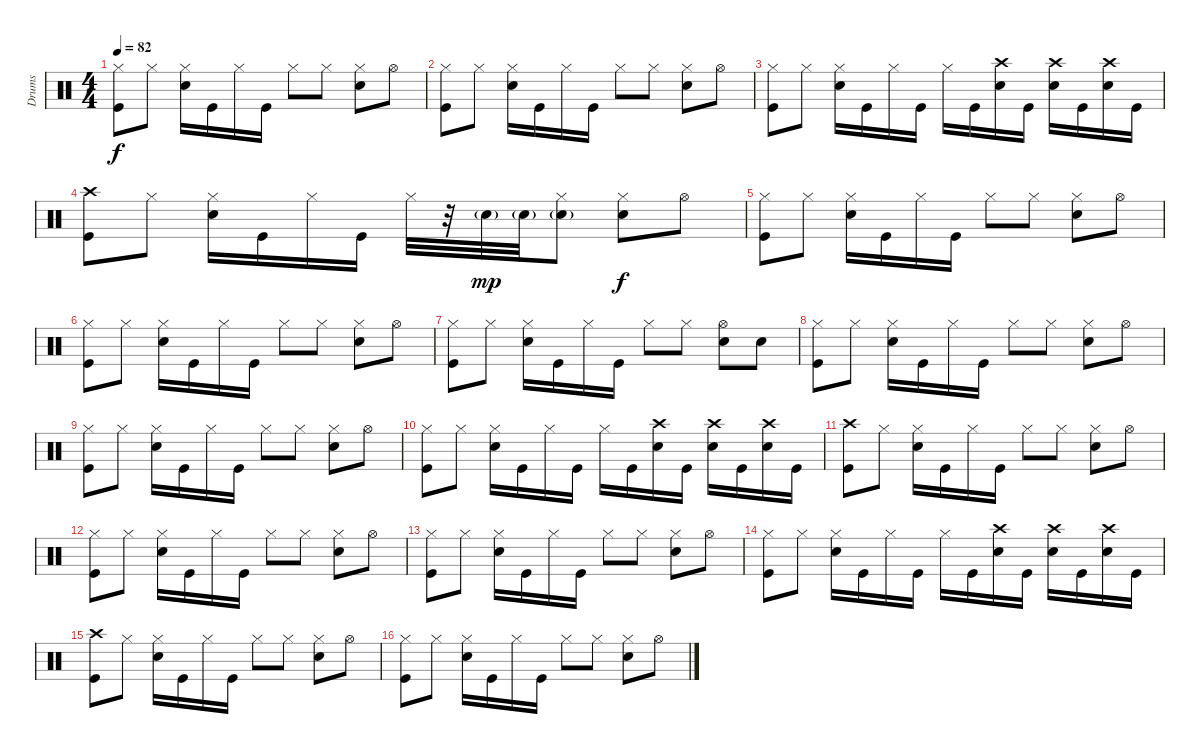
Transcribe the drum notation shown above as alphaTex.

\track ("Drums" "Drums") {instrument percussion}
\staff {score}
\articulation defaults
\ts (4 4)
\tempo 82
\clef neutral
\ks c
("Hi-Hat (closed)" "Kick (hit)").8{dy f} "Hi-Hat (closed)".8 ("Hi-Hat (closed)" "Snare (hit) 2").16 "Kick (hit)".16 "Hi-Hat (closed)".16 "Kick (hit)".16 "Hi-Hat (closed)".8 "Hi-Hat (closed)".8 ("Hi-Hat (closed)" "Snare (hit) 2").8 "Hi-Hat (open)".8 |
("Hi-Hat (closed)" "Kick (hit)").8 "Hi-Hat (closed)".8 ("Hi-Hat (closed)" "Snare (hit) 2").16 "Kick (hit)".16 "Hi-Hat (closed)".16 "Kick (hit)".16 "Hi-Hat (closed)".8 "Hi-Hat (closed)".8 ("Hi-Hat (closed)" "Snare (hit) 2").8 "Hi-Hat (open)".8 |
("Hi-Hat (closed)" "Kick (hit)").8 "Hi-Hat (closed)".8 ("Hi-Hat (closed)" "Snare (hit) 2").16 "Kick (hit)".16 "Hi-Hat (closed)".16 "Kick (hit)".16 "Hi-Hat (closed)".16 "Kick (hit)".16 ("Crash high (hit)" "Electric Snare (hit)").16 "Kick (hit)".16 ("Crash high (hit)" "Electric Snare (hit)").16 "Kick (hit)".16 ("Crash high (hit)" "Electric Snare (hit)").16 "Kick (hit)".16 |
("Crash high (hit)" "Kick (hit)").8 "Hi-Hat (closed)".8 ("Hi-Hat (closed)" "Snare (hit) 2").16 "Kick (hit)".16 "Hi-Hat (closed)".16 "Kick (hit)".16 "Hi-Hat (closed)".32 r.32 "Snare (hit) 2"{g}.32{dy mp} "Snare (hit) 2"{g}.32 ("Hi-Hat (closed)" "Snare (hit) 2"{g}).8 ("Hi-Hat (closed)" "Snare (hit) 2").8{dy f} "Hi-Hat (open)".8 |
("Hi-Hat (closed)" "Kick (hit)").8 "Hi-Hat (closed)".8 ("Hi-Hat (closed)" "Snare (hit) 2").16 "Kick (hit)".16 "Hi-Hat (closed)".16 "Kick (hit)".16 "Hi-Hat (closed)".8 "Hi-Hat (closed)".8 ("Hi-Hat (closed)" "Snare (hit) 2").8 "Hi-Hat (open)".8 |
("Hi-Hat (closed)" "Kick (hit)").8 "Hi-Hat (closed)".8 ("Hi-Hat (closed)" "Snare (hit) 2").16 "Kick (hit)".16 "Hi-Hat (closed)".16 "Kick (hit)".16 "Hi-Hat (closed)".8 "Hi-Hat (closed)".8 ("Hi-Hat (closed)" "Snare (hit) 2").8 "Hi-Hat (open)".8 |
("Hi-Hat (closed)" "Kick (hit)").8 "Hi-Hat (closed)".8 ("Hi-Hat (closed)" "Snare (hit) 2").16 "Kick (hit)".16 "Hi-Hat (closed)".16 "Kick (hit)".16 "Hi-Hat (closed)".8 "Hi-Hat (closed)".8 ("Hi-Hat (open)" "Snare (hit) 2").8 "Snare (hit) 2".8 |
("Hi-Hat (closed)" "Kick (hit)").8 "Hi-Hat (closed)".8 ("Hi-Hat (closed)" "Snare (hit) 2").16 "Kick (hit)".16 "Hi-Hat (closed)".16 "Kick (hit)".16 "Hi-Hat (closed)".8 "Hi-Hat (closed)".8 ("Hi-Hat (closed)" "Snare (hit) 2").8 "Hi-Hat (open)".8 |
("Hi-Hat (closed)" "Kick (hit)").8 "Hi-Hat (closed)".8 ("Hi-Hat (closed)" "Snare (hit) 2").16 "Kick (hit)".16 "Hi-Hat (closed)".16 "Kick (hit)".16 "Hi-Hat (closed)".8 "Hi-Hat (closed)".8 ("Hi-Hat (closed)" "Snare (hit) 2").8 "Hi-Hat (open)".8 |
("Hi-Hat (closed)" "Kick (hit)").8 "Hi-Hat (closed)".8 ("Hi-Hat (closed)" "Snare (hit) 2").16 "Kick (hit)".16 "Hi-Hat (closed)".16 "Kick (hit)".16 "Hi-Hat (closed)".16 "Kick (hit)".16 ("Crash high (hit)" "Electric Snare (hit)").16 "Kick (hit)".16 ("Crash high (hit)" "Electric Snare (hit)").16 "Kick (hit)".16 ("Crash high (hit)" "Electric Snare (hit)").16 "Kick (hit)".16 |
("Crash high (hit)" "Kick (hit)").8 "Hi-Hat (closed)".8 ("Hi-Hat (closed)" "Snare (hit) 2").16 "Kick (hit)".16 "Hi-Hat (closed)".16 "Kick (hit)".16 "Hi-Hat (closed)".8 "Hi-Hat (closed)".8 ("Hi-Hat (closed)" "Snare (hit) 2").8 "Hi-Hat (open)".8 |
("Hi-Hat (closed)" "Kick (hit)").8 "Hi-Hat (closed)".8 ("Hi-Hat (closed)" "Snare (hit) 2").16 "Kick (hit)".16 "Hi-Hat (closed)".16 "Kick (hit)".16 "Hi-Hat (closed)".8 "Hi-Hat (closed)".8 ("Hi-Hat (closed)" "Snare (hit) 2").8 "Hi-Hat (open)".8 |
("Hi-Hat (closed)" "Kick (hit)").8 "Hi-Hat (closed)".8 ("Hi-Hat (closed)" "Snare (hit) 2").16 "Kick (hit)".16 "Hi-Hat (closed)".16 "Kick (hit)".16 "Hi-Hat (closed)".8 "Hi-Hat (closed)".8 ("Hi-Hat (closed)" "Snare (hit) 2").8 "Hi-Hat (open)".8 |
("Hi-Hat (closed)" "Kick (hit)").8 "Hi-Hat (closed)".8 ("Hi-Hat (closed)" "Snare (hit) 2").16 "Kick (hit)".16 "Hi-Hat (closed)".16 "Kick (hit)".16 "Hi-Hat (closed)".16 "Kick (hit)".16 ("Crash high (hit)" "Electric Snare (hit)").16 "Kick (hit)".16 ("Crash high (hit)" "Electric Snare (hit)").16 "Kick (hit)".16 ("Crash high (hit)" "Electric Snare (hit)").16 "Kick (hit)".16 |
("Crash high (hit)" "Kick (hit)").8 "Hi-Hat (closed)".8 ("Hi-Hat (closed)" "Snare (hit) 2").16 "Kick (hit)".16 "Hi-Hat (closed)".16 "Kick (hit)".16 "Hi-Hat (closed)".8 "Hi-Hat (closed)".8 ("Hi-Hat (closed)" "Snare (hit) 2").8 "Hi-Hat (open)".8 |
("Hi-Hat (closed)" "Kick (hit)").8 "Hi-Hat (closed)".8 ("Hi-Hat (closed)" "Snare (hit) 2").16 "Kick (hit)".16 "Hi-Hat (closed)".16 "Kick (hit)".16 "Hi-Hat (closed)".8 "Hi-Hat (closed)".8 ("Hi-Hat (closed)" "Snare (hit) 2").8 "Hi-Hat (open)".8
